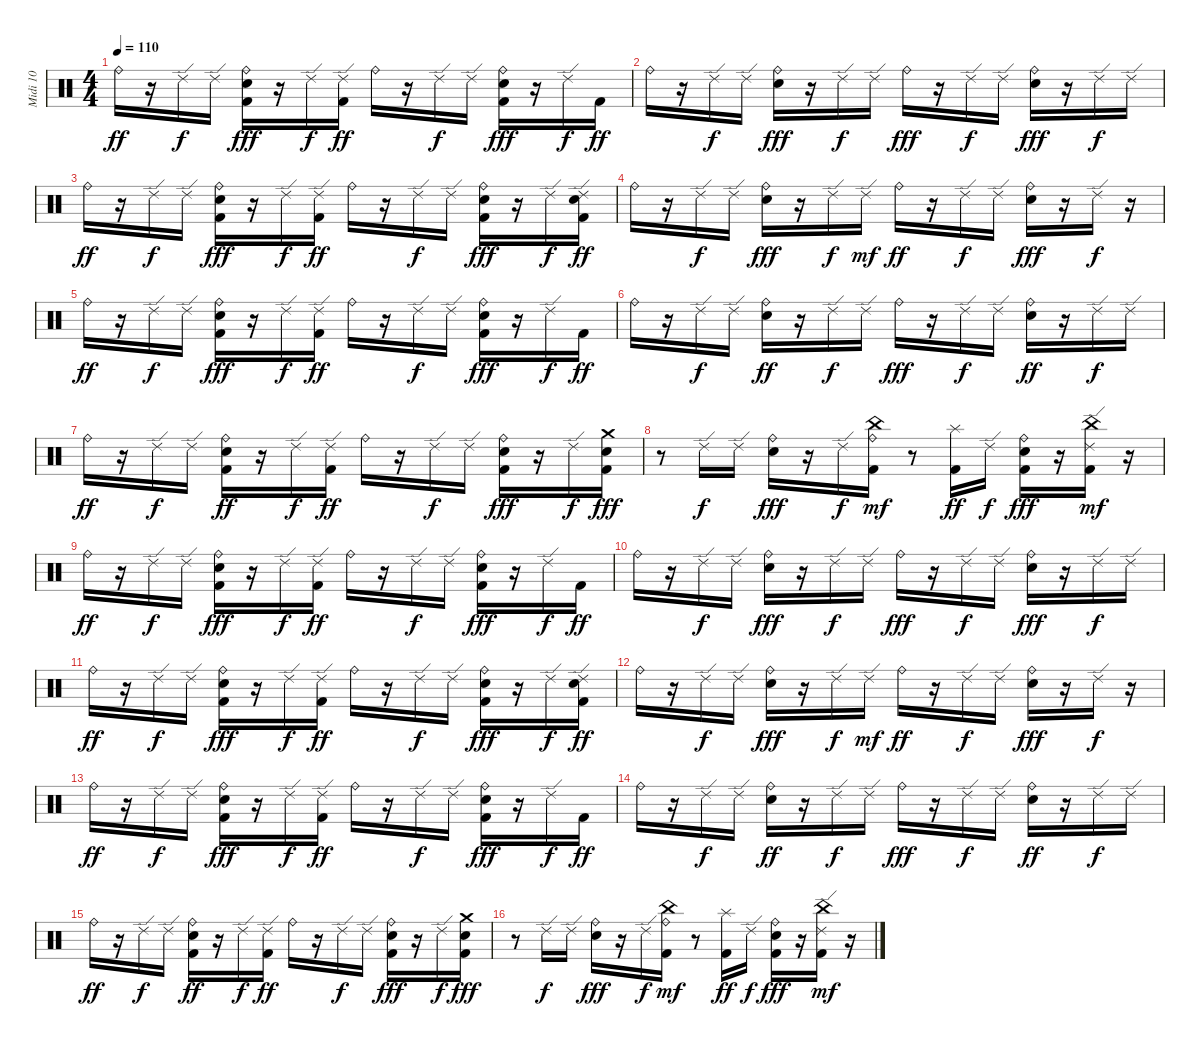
\track ("Midi 10" "Midi 10") {instrument percussion}
\staff {score}
\articulation defaults
\ts (4 4)
\tempo 110
\clef neutral
\ks c "Ride (bell)".16{dy ff}
r.16 "Ride (edge) 2".16{dy f} "Ride (edge) 2".16 ("Ride (bell)" "Kick (hit) 2" "Snare (hit) 2").16{dy fff} r.16 "Ride (edge) 2".16{dy f} ("Ride (edge) 2" "Kick (hit) 2").16{dy ff} "Ride (bell)".16 r.16 "Ride (edge) 2".16{dy f} "Ride (edge) 2".16 ("Ride (bell)" "Snare (hit) 2" "Kick (hit) 2").16{dy fff} r.16 "Ride (edge) 2".16{dy f} "Kick (hit) 2".16{dy ff} |
"Ride (bell)".16 r.16 "Ride (edge) 2".16{dy f} "Ride (edge) 2".16 ("Ride (bell)" "Snare (hit) 2").16{dy fff} r.16 "Ride (edge) 2".16{dy f} "Ride (edge) 2".16 "Ride (bell)".16{dy fff} r.16 "Ride (edge) 2".16{dy f} "Ride (edge) 2".16 ("Ride (bell)" "Snare (hit) 2").16{dy fff} r.16 "Ride (edge) 2".16{dy f} "Ride (edge) 2".16 |
"Ride (bell)".16{dy ff} r.16 "Ride (edge) 2".16{dy f} "Ride (edge) 2".16 ("Kick (hit) 2" "Ride (bell)" "Snare (hit) 2").16{dy fff} r.16 "Ride (edge) 2".16{dy f} ("Kick (hit) 2" "Ride (edge) 2").16{dy ff} "Ride (bell)".16 r.16 "Ride (edge) 2".16{dy f} "Ride (edge) 2".16 ("Ride (bell)" "Kick (hit) 2" "Snare (hit) 2").16{dy fff} r.16 "Ride (edge) 2".16{dy f} ("Ride (edge) 2" "Snare (hit) 2" "Kick (hit) 2").16{dy ff} |
"Ride (bell)".16 r.16 "Ride (edge) 2".16{dy f} "Ride (edge) 2".16 ("Ride (bell)" "Snare (hit) 2").16{dy fff} r.16 "Ride (edge) 2".16{dy f} "Ride (edge) 2".16{dy mf} "Ride (bell)".16{dy ff} r.16 "Ride (edge) 2".16{dy f} "Ride (edge) 2".16 ("Ride (bell)" "Snare (hit) 2").16{dy fff} r.16 "Ride (edge) 2".16{dy f} r.16 |
"Ride (bell)".16{dy ff} r.16 "Ride (edge) 2".16{dy f} "Ride (edge) 2".16 ("Kick (hit) 2" "Ride (bell)" "Snare (hit) 2").16{dy fff} r.16 "Ride (edge) 2".16{dy f} ("Ride (edge) 2" "Kick (hit) 2").16{dy ff} "Ride (bell)".16 r.16 "Ride (edge) 2".16{dy f} "Ride (edge) 2".16 ("Ride (bell)" "Kick (hit) 2" "Snare (hit) 2").16{dy fff} r.16 "Ride (edge) 2".16{dy f} "Kick (hit) 2".16{dy ff} |
"Ride (bell)".16 r.16 "Ride (edge) 2".16{dy f} "Ride (edge) 2".16 ("Snare (hit) 2" "Ride (bell)").16{dy ff} r.16 "Ride (edge) 2".16{dy f} "Ride (edge) 2".16 "Ride (bell)".16{dy fff} r.16 "Ride (edge) 2".16{dy f} "Ride (edge) 2".16 ("Snare (hit) 2" "Ride (bell)").16{dy ff} r.16 "Ride (edge) 2".16{dy f} "Ride (edge) 2".16 |
"Ride (bell)".16{dy ff} r.16 "Ride (edge) 2".16{dy f} "Ride (edge) 2".16 ("Kick (hit) 2" "Snare (hit) 2" "Ride (bell)").16{dy ff} r.16 "Ride (edge) 2".16{dy f} ("Kick (hit) 2" "Ride (edge) 2").16{dy ff} "Ride (bell)".16 r.16 "Ride (edge) 2".16{dy f} "Ride (edge) 2".16 ("Kick (hit) 2" "Ride (bell)" "Snare (hit) 2").16{dy fff} r.16 "Ride (edge) 2".16{dy f} ("Kick (hit) 2" "Snare (hit) 2" "Crash medium (hit)").16{dy fff} |
r.8 "Ride (edge) 2".16{dy f} "Ride (edge) 2".16 ("Ride (bell)" "Snare (hit) 2").16{dy fff} r.16 "Ride (edge) 2".16{dy f} ("Ride (bell)" "Kick (hit) 2" "China (hit)").16{dy mf} r.8 ("Kick (hit) 2" "Splash (hit)").16{dy ff} "Ride (edge) 2".16{dy f} ("Ride (bell)" "Kick (hit) 2" "Snare (hit) 2").16{dy fff} r.16 ("Kick (hit) 2" "China (hit)" "Ride (edge) 2").16{dy mf} r.16 |
"Ride (bell)".16{dy ff} r.16 "Ride (edge) 2".16{dy f} "Ride (edge) 2".16 ("Ride (bell)" "Kick (hit) 2" "Snare (hit) 2").16{dy fff} r.16 "Ride (edge) 2".16{dy f} ("Ride (edge) 2" "Kick (hit) 2").16{dy ff} "Ride (bell)".16 r.16 "Ride (edge) 2".16{dy f} "Ride (edge) 2".16 ("Ride (bell)" "Snare (hit) 2" "Kick (hit) 2").16{dy fff} r.16 "Ride (edge) 2".16{dy f} "Kick (hit) 2".16{dy ff} |
"Ride (bell)".16 r.16 "Ride (edge) 2".16{dy f} "Ride (edge) 2".16 ("Ride (bell)" "Snare (hit) 2").16{dy fff} r.16 "Ride (edge) 2".16{dy f} "Ride (edge) 2".16 "Ride (bell)".16{dy fff} r.16 "Ride (edge) 2".16{dy f} "Ride (edge) 2".16 ("Ride (bell)" "Snare (hit) 2").16{dy fff} r.16 "Ride (edge) 2".16{dy f} "Ride (edge) 2".16 |
"Ride (bell)".16{dy ff} r.16 "Ride (edge) 2".16{dy f} "Ride (edge) 2".16 ("Kick (hit) 2" "Ride (bell)" "Snare (hit) 2").16{dy fff} r.16 "Ride (edge) 2".16{dy f} ("Kick (hit) 2" "Ride (edge) 2").16{dy ff} "Ride (bell)".16 r.16 "Ride (edge) 2".16{dy f} "Ride (edge) 2".16 ("Ride (bell)" "Kick (hit) 2" "Snare (hit) 2").16{dy fff} r.16 "Ride (edge) 2".16{dy f} ("Ride (edge) 2" "Snare (hit) 2" "Kick (hit) 2").16{dy ff} |
"Ride (bell)".16 r.16 "Ride (edge) 2".16{dy f} "Ride (edge) 2".16 ("Ride (bell)" "Snare (hit) 2").16{dy fff} r.16 "Ride (edge) 2".16{dy f} "Ride (edge) 2".16{dy mf} "Ride (bell)".16{dy ff} r.16 "Ride (edge) 2".16{dy f} "Ride (edge) 2".16 ("Ride (bell)" "Snare (hit) 2").16{dy fff} r.16 "Ride (edge) 2".16{dy f} r.16 |
"Ride (bell)".16{dy ff} r.16 "Ride (edge) 2".16{dy f} "Ride (edge) 2".16 ("Kick (hit) 2" "Ride (bell)" "Snare (hit) 2").16{dy fff} r.16 "Ride (edge) 2".16{dy f} ("Ride (edge) 2" "Kick (hit) 2").16{dy ff} "Ride (bell)".16 r.16 "Ride (edge) 2".16{dy f} "Ride (edge) 2".16 ("Ride (bell)" "Kick (hit) 2" "Snare (hit) 2").16{dy fff} r.16 "Ride (edge) 2".16{dy f} "Kick (hit) 2".16{dy ff} |
"Ride (bell)".16 r.16 "Ride (edge) 2".16{dy f} "Ride (edge) 2".16 ("Snare (hit) 2" "Ride (bell)").16{dy ff} r.16 "Ride (edge) 2".16{dy f} "Ride (edge) 2".16 "Ride (bell)".16{dy fff} r.16 "Ride (edge) 2".16{dy f} "Ride (edge) 2".16 ("Snare (hit) 2" "Ride (bell)").16{dy ff} r.16 "Ride (edge) 2".16{dy f} "Ride (edge) 2".16 |
"Ride (bell)".16{dy ff} r.16 "Ride (edge) 2".16{dy f} "Ride (edge) 2".16 ("Kick (hit) 2" "Snare (hit) 2" "Ride (bell)").16{dy ff} r.16 "Ride (edge) 2".16{dy f} ("Kick (hit) 2" "Ride (edge) 2").16{dy ff} "Ride (bell)".16 r.16 "Ride (edge) 2".16{dy f} "Ride (edge) 2".16 ("Kick (hit) 2" "Ride (bell)" "Snare (hit) 2").16{dy fff} r.16 "Ride (edge) 2".16{dy f} ("Kick (hit) 2" "Snare (hit) 2" "Crash medium (hit)").16{dy fff} |
r.8 "Ride (edge) 2".16{dy f} "Ride (edge) 2".16 ("Ride (bell)" "Snare (hit) 2").16{dy fff} r.16 "Ride (edge) 2".16{dy f} ("Ride (bell)" "Kick (hit) 2" "China (hit)").16{dy mf} r.8 ("Kick (hit) 2" "Splash (hit)").16{dy ff} "Ride (edge) 2".16{dy f} ("Ride (bell)" "Kick (hit) 2" "Snare (hit) 2").16{dy fff} r.16 ("Kick (hit) 2" "China (hit)" "Ride (edge) 2").16{dy mf} r.16
